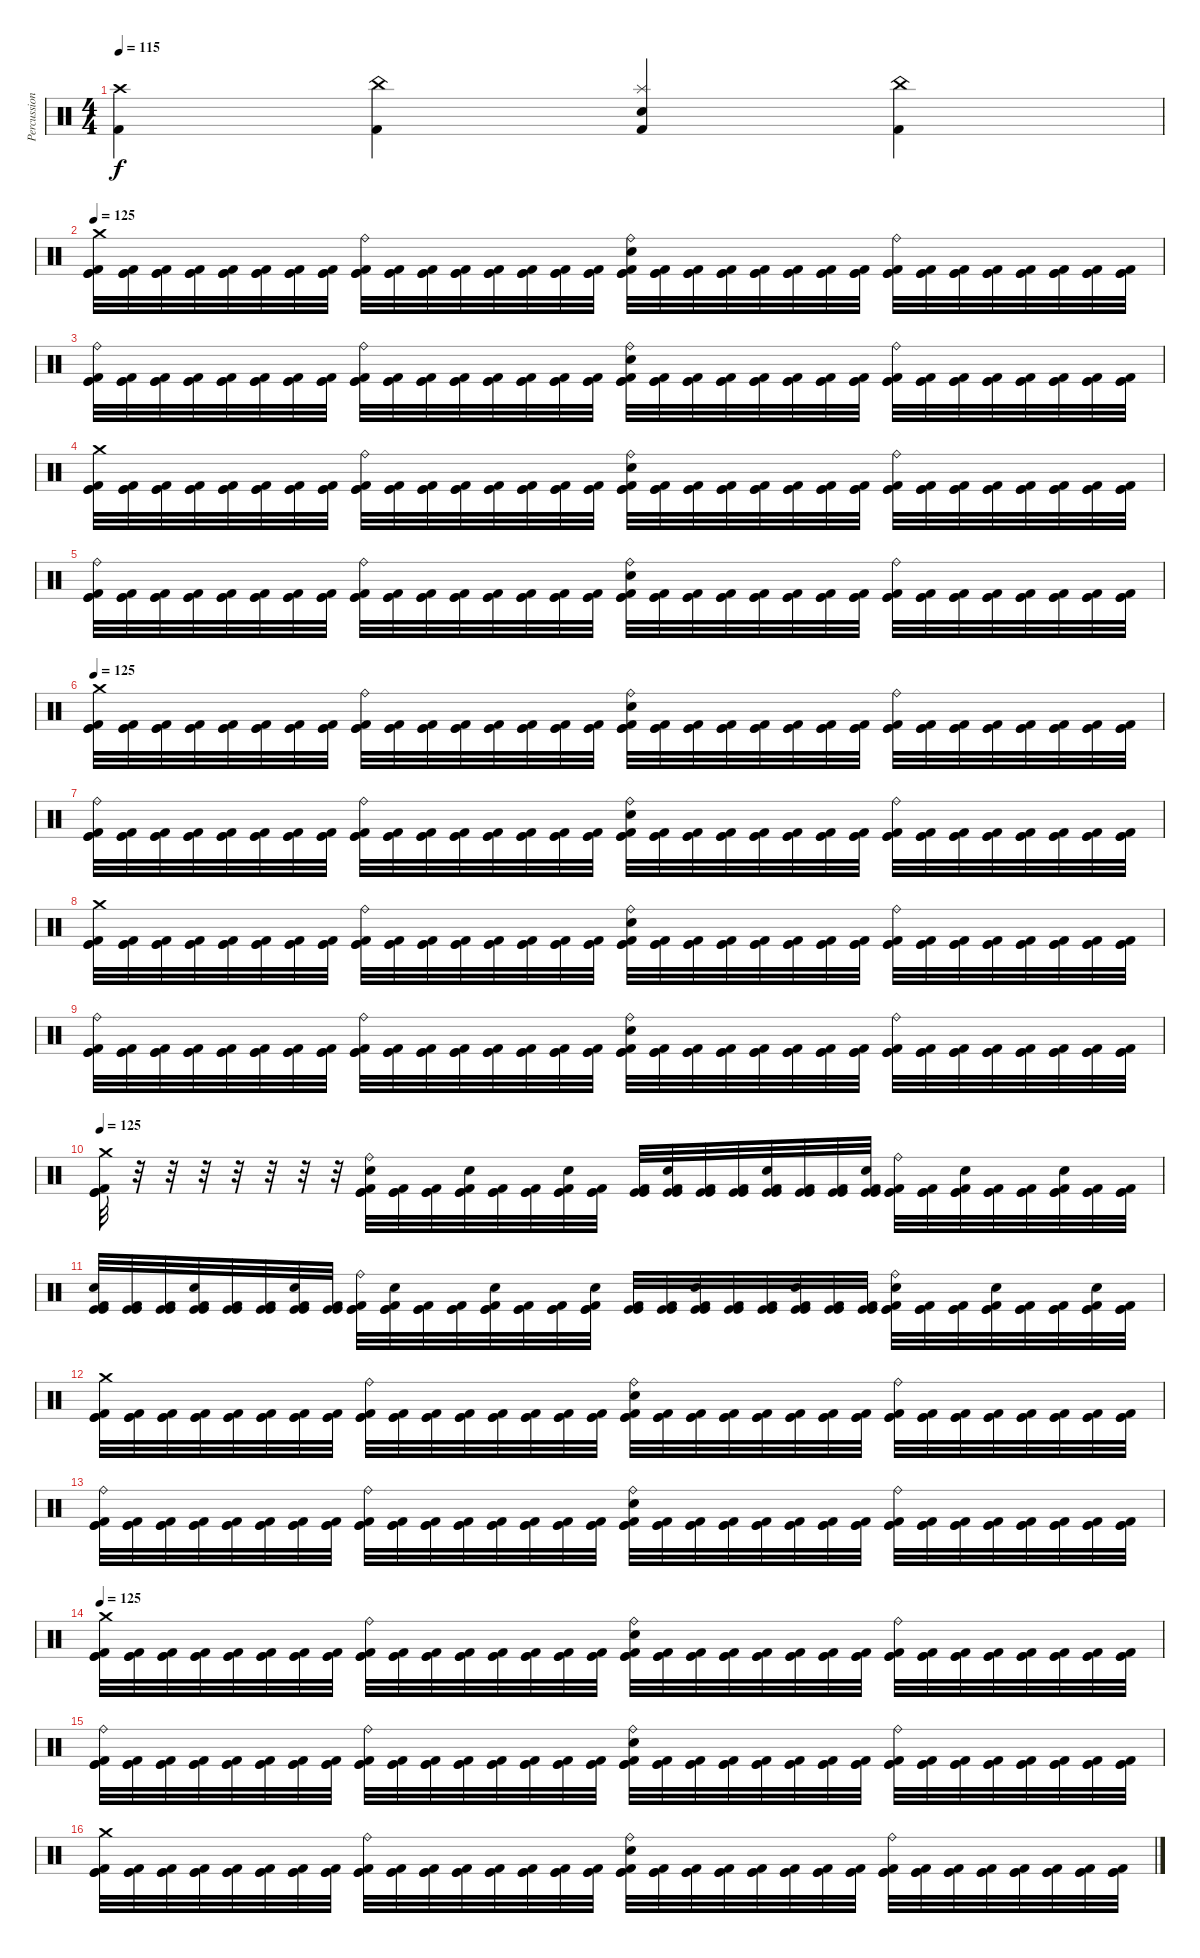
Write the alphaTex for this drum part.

\track ("Percussion" "Percussion") {instrument percussion}
\staff {score}
\articulation defaults
\ts (4 4)
\tempo 115
\clef neutral
\ks c
("Crash high (hit)" "Kick (hit) 2").4{dy f} ("China (hit)" "Kick (hit) 2").4 ("Splash (hit)" "Electric Snare (hit)" "Kick (hit) 2").4 ("China (hit)" "Kick (hit) 2").4 |
\tempo 125
("Kick (hit)" "Crash medium (hit)" "Kick (hit)" "Kick (hit) 2").32 ("Kick (hit)" "Kick (hit)" "Kick (hit) 2").32 ("Kick (hit)" "Kick (hit)" "Kick (hit) 2").32 ("Kick (hit)" "Kick (hit)" "Kick (hit) 2").32 ("Kick (hit)" "Kick (hit)" "Kick (hit) 2").32 ("Kick (hit)" "Kick (hit)" "Kick (hit) 2").32 ("Kick (hit)" "Kick (hit)" "Kick (hit) 2").32 ("Kick (hit)" "Kick (hit)" "Kick (hit) 2").32 ("Kick (hit)" "Ride (bell)" "Kick (hit)" "Kick (hit) 2").32 ("Kick (hit)" "Kick (hit)" "Kick (hit) 2").32 ("Kick (hit)" "Kick (hit)" "Kick (hit) 2").32 ("Kick (hit)" "Kick (hit)" "Kick (hit) 2").32 ("Kick (hit)" "Kick (hit)" "Kick (hit) 2").32 ("Kick (hit)" "Kick (hit)" "Kick (hit) 2").32 ("Kick (hit)" "Kick (hit)" "Kick (hit) 2").32 ("Kick (hit)" "Kick (hit)" "Kick (hit) 2").32 ("Kick (hit)" "Electric Snare (hit)" "Ride (bell)" "Kick (hit)" "Kick (hit) 2").32 ("Kick (hit)" "Kick (hit)" "Kick (hit) 2").32 ("Kick (hit)" "Kick (hit)" "Kick (hit) 2").32 ("Kick (hit)" "Kick (hit)" "Kick (hit) 2").32 ("Kick (hit)" "Kick (hit)" "Kick (hit) 2").32 ("Kick (hit)" "Kick (hit)" "Kick (hit) 2").32 ("Kick (hit)" "Kick (hit)" "Kick (hit) 2").32 ("Kick (hit)" "Kick (hit)" "Kick (hit) 2").32 ("Kick (hit)" "Ride (bell)" "Kick (hit)" "Kick (hit) 2").32 ("Kick (hit)" "Kick (hit)" "Kick (hit) 2").32 ("Kick (hit)" "Kick (hit)" "Kick (hit) 2").32 ("Kick (hit)" "Kick (hit)" "Kick (hit) 2").32 ("Kick (hit)" "Kick (hit)" "Kick (hit) 2").32 ("Kick (hit)" "Kick (hit)" "Kick (hit) 2").32 ("Kick (hit)" "Kick (hit)" "Kick (hit) 2").32 ("Kick (hit)" "Kick (hit)" "Kick (hit) 2").32 |
("Kick (hit)" "Ride (bell)" "Kick (hit)" "Kick (hit) 2").32 ("Kick (hit)" "Kick (hit)" "Kick (hit) 2").32 ("Kick (hit)" "Kick (hit)" "Kick (hit) 2").32 ("Kick (hit)" "Kick (hit)" "Kick (hit) 2").32 ("Kick (hit)" "Kick (hit)" "Kick (hit) 2").32 ("Kick (hit)" "Kick (hit)" "Kick (hit) 2").32 ("Kick (hit)" "Kick (hit)" "Kick (hit) 2").32 ("Kick (hit)" "Kick (hit)" "Kick (hit) 2").32 ("Kick (hit)" "Ride (bell)" "Kick (hit)" "Kick (hit) 2").32 ("Kick (hit)" "Kick (hit)" "Kick (hit) 2").32 ("Kick (hit)" "Kick (hit)" "Kick (hit) 2").32 ("Kick (hit)" "Kick (hit)" "Kick (hit) 2").32 ("Kick (hit)" "Kick (hit)" "Kick (hit) 2").32 ("Kick (hit)" "Kick (hit)" "Kick (hit) 2").32 ("Kick (hit)" "Kick (hit)" "Kick (hit) 2").32 ("Kick (hit)" "Kick (hit)" "Kick (hit) 2").32 ("Kick (hit)" "Electric Snare (hit)" "Ride (bell)" "Kick (hit)" "Kick (hit) 2").32 ("Kick (hit)" "Kick (hit)" "Kick (hit) 2").32 ("Kick (hit)" "Kick (hit)" "Kick (hit) 2").32 ("Kick (hit)" "Kick (hit)" "Kick (hit) 2").32 ("Kick (hit)" "Kick (hit)" "Kick (hit) 2").32 ("Kick (hit)" "Kick (hit)" "Kick (hit) 2").32 ("Kick (hit)" "Kick (hit)" "Kick (hit) 2").32 ("Kick (hit)" "Kick (hit)" "Kick (hit) 2").32 ("Kick (hit)" "Ride (bell)" "Kick (hit)" "Kick (hit) 2").32 ("Kick (hit)" "Kick (hit)" "Kick (hit) 2").32 ("Kick (hit)" "Kick (hit)" "Kick (hit) 2").32 ("Kick (hit)" "Kick (hit)" "Kick (hit) 2").32 ("Kick (hit)" "Kick (hit)" "Kick (hit) 2").32 ("Kick (hit)" "Kick (hit)" "Kick (hit) 2").32 ("Kick (hit)" "Kick (hit)" "Kick (hit) 2").32 ("Kick (hit)" "Kick (hit)" "Kick (hit) 2").32 |
("Kick (hit)" "Crash medium (hit)" "Kick (hit)" "Kick (hit) 2").32 ("Kick (hit)" "Kick (hit)" "Kick (hit) 2").32 ("Kick (hit)" "Kick (hit)" "Kick (hit) 2").32 ("Kick (hit)" "Kick (hit)" "Kick (hit) 2").32 ("Kick (hit)" "Kick (hit)" "Kick (hit) 2").32 ("Kick (hit)" "Kick (hit)" "Kick (hit) 2").32 ("Kick (hit)" "Kick (hit)" "Kick (hit) 2").32 ("Kick (hit)" "Kick (hit)" "Kick (hit) 2").32 ("Kick (hit)" "Ride (bell)" "Kick (hit)" "Kick (hit) 2").32 ("Kick (hit)" "Kick (hit)" "Kick (hit) 2").32 ("Kick (hit)" "Kick (hit)" "Kick (hit) 2").32 ("Kick (hit)" "Kick (hit)" "Kick (hit) 2").32 ("Kick (hit)" "Kick (hit)" "Kick (hit) 2").32 ("Kick (hit)" "Kick (hit)" "Kick (hit) 2").32 ("Kick (hit)" "Kick (hit)" "Kick (hit) 2").32 ("Kick (hit)" "Kick (hit)" "Kick (hit) 2").32 ("Kick (hit)" "Electric Snare (hit)" "Ride (bell)" "Kick (hit)" "Kick (hit) 2").32 ("Kick (hit)" "Kick (hit)" "Kick (hit) 2").32 ("Kick (hit)" "Kick (hit)" "Kick (hit) 2").32 ("Kick (hit)" "Kick (hit)" "Kick (hit) 2").32 ("Kick (hit)" "Kick (hit)" "Kick (hit) 2").32 ("Kick (hit)" "Kick (hit)" "Kick (hit) 2").32 ("Kick (hit)" "Kick (hit)" "Kick (hit) 2").32 ("Kick (hit)" "Kick (hit)" "Kick (hit) 2").32 ("Kick (hit)" "Ride (bell)" "Kick (hit)" "Kick (hit) 2").32 ("Kick (hit)" "Kick (hit)" "Kick (hit) 2").32 ("Kick (hit)" "Kick (hit)" "Kick (hit) 2").32 ("Kick (hit)" "Kick (hit)" "Kick (hit) 2").32 ("Kick (hit)" "Kick (hit)" "Kick (hit) 2").32 ("Kick (hit)" "Kick (hit)" "Kick (hit) 2").32 ("Kick (hit)" "Kick (hit)" "Kick (hit) 2").32 ("Kick (hit)" "Kick (hit)" "Kick (hit) 2").32 |
("Kick (hit)" "Ride (bell)" "Kick (hit)" "Kick (hit) 2").32 ("Kick (hit)" "Kick (hit)" "Kick (hit) 2").32 ("Kick (hit)" "Kick (hit)" "Kick (hit) 2").32 ("Kick (hit)" "Kick (hit)" "Kick (hit) 2").32 ("Kick (hit)" "Kick (hit)" "Kick (hit) 2").32 ("Kick (hit)" "Kick (hit)" "Kick (hit) 2").32 ("Kick (hit)" "Kick (hit)" "Kick (hit) 2").32 ("Kick (hit)" "Kick (hit)" "Kick (hit) 2").32 ("Kick (hit)" "Ride (bell)" "Kick (hit)" "Kick (hit) 2").32 ("Kick (hit)" "Kick (hit)" "Kick (hit) 2").32 ("Kick (hit)" "Kick (hit)" "Kick (hit) 2").32 ("Kick (hit)" "Kick (hit)" "Kick (hit) 2").32 ("Kick (hit)" "Kick (hit)" "Kick (hit) 2").32 ("Kick (hit)" "Kick (hit)" "Kick (hit) 2").32 ("Kick (hit)" "Kick (hit)" "Kick (hit) 2").32 ("Kick (hit)" "Kick (hit)" "Kick (hit) 2").32 ("Kick (hit)" "Electric Snare (hit)" "Ride (bell)" "Kick (hit)" "Kick (hit) 2").32 ("Kick (hit)" "Kick (hit)" "Kick (hit) 2").32 ("Kick (hit)" "Kick (hit)" "Kick (hit) 2").32 ("Kick (hit)" "Kick (hit)" "Kick (hit) 2").32 ("Kick (hit)" "Kick (hit)" "Kick (hit) 2").32 ("Kick (hit)" "Kick (hit)" "Kick (hit) 2").32 ("Kick (hit)" "Kick (hit)" "Kick (hit) 2").32 ("Kick (hit)" "Kick (hit)" "Kick (hit) 2").32 ("Kick (hit)" "Ride (bell)" "Kick (hit)" "Kick (hit) 2").32 ("Kick (hit)" "Kick (hit)" "Kick (hit) 2").32 ("Kick (hit)" "Kick (hit)" "Kick (hit) 2").32 ("Kick (hit)" "Kick (hit)" "Kick (hit) 2").32 ("Kick (hit)" "Kick (hit)" "Kick (hit) 2").32 ("Kick (hit)" "Kick (hit)" "Kick (hit) 2").32 ("Kick (hit)" "Kick (hit)" "Kick (hit) 2").32 ("Kick (hit)" "Kick (hit)" "Kick (hit) 2").32 |
\tempo 125
("Kick (hit)" "Crash medium (hit)" "Kick (hit)" "Kick (hit) 2").32 ("Kick (hit)" "Kick (hit)" "Kick (hit) 2").32 ("Kick (hit)" "Kick (hit)" "Kick (hit) 2").32 ("Kick (hit)" "Kick (hit)" "Kick (hit) 2").32 ("Kick (hit)" "Kick (hit)" "Kick (hit) 2").32 ("Kick (hit)" "Kick (hit)" "Kick (hit) 2").32 ("Kick (hit)" "Kick (hit)" "Kick (hit) 2").32 ("Kick (hit)" "Kick (hit)" "Kick (hit) 2").32 ("Kick (hit)" "Ride (bell)" "Kick (hit)" "Kick (hit) 2").32 ("Kick (hit)" "Kick (hit)" "Kick (hit) 2").32 ("Kick (hit)" "Kick (hit)" "Kick (hit) 2").32 ("Kick (hit)" "Kick (hit)" "Kick (hit) 2").32 ("Kick (hit)" "Kick (hit)" "Kick (hit) 2").32 ("Kick (hit)" "Kick (hit)" "Kick (hit) 2").32 ("Kick (hit)" "Kick (hit)" "Kick (hit) 2").32 ("Kick (hit)" "Kick (hit)" "Kick (hit) 2").32 ("Kick (hit)" "Electric Snare (hit)" "Ride (bell)" "Kick (hit)" "Kick (hit) 2").32 ("Kick (hit)" "Kick (hit)" "Kick (hit) 2").32 ("Kick (hit)" "Kick (hit)" "Kick (hit) 2").32 ("Kick (hit)" "Kick (hit)" "Kick (hit) 2").32 ("Kick (hit)" "Kick (hit)" "Kick (hit) 2").32 ("Kick (hit)" "Kick (hit)" "Kick (hit) 2").32 ("Kick (hit)" "Kick (hit)" "Kick (hit) 2").32 ("Kick (hit)" "Kick (hit)" "Kick (hit) 2").32 ("Kick (hit)" "Ride (bell)" "Kick (hit)" "Kick (hit) 2").32 ("Kick (hit)" "Kick (hit)" "Kick (hit) 2").32 ("Kick (hit)" "Kick (hit)" "Kick (hit) 2").32 ("Kick (hit)" "Kick (hit)" "Kick (hit) 2").32 ("Kick (hit)" "Kick (hit)" "Kick (hit) 2").32 ("Kick (hit)" "Kick (hit)" "Kick (hit) 2").32 ("Kick (hit)" "Kick (hit)" "Kick (hit) 2").32 ("Kick (hit)" "Kick (hit)" "Kick (hit) 2").32 |
("Kick (hit)" "Ride (bell)" "Kick (hit)" "Kick (hit) 2").32 ("Kick (hit)" "Kick (hit)" "Kick (hit) 2").32 ("Kick (hit)" "Kick (hit)" "Kick (hit) 2").32 ("Kick (hit)" "Kick (hit)" "Kick (hit) 2").32 ("Kick (hit)" "Kick (hit)" "Kick (hit) 2").32 ("Kick (hit)" "Kick (hit)" "Kick (hit) 2").32 ("Kick (hit)" "Kick (hit)" "Kick (hit) 2").32 ("Kick (hit)" "Kick (hit)" "Kick (hit) 2").32 ("Kick (hit)" "Ride (bell)" "Kick (hit)" "Kick (hit) 2").32 ("Kick (hit)" "Kick (hit)" "Kick (hit) 2").32 ("Kick (hit)" "Kick (hit)" "Kick (hit) 2").32 ("Kick (hit)" "Kick (hit)" "Kick (hit) 2").32 ("Kick (hit)" "Kick (hit)" "Kick (hit) 2").32 ("Kick (hit)" "Kick (hit)" "Kick (hit) 2").32 ("Kick (hit)" "Kick (hit)" "Kick (hit) 2").32 ("Kick (hit)" "Kick (hit)" "Kick (hit) 2").32 ("Kick (hit)" "Electric Snare (hit)" "Ride (bell)" "Kick (hit)" "Kick (hit) 2").32 ("Kick (hit)" "Kick (hit)" "Kick (hit) 2").32 ("Kick (hit)" "Kick (hit)" "Kick (hit) 2").32 ("Kick (hit)" "Kick (hit)" "Kick (hit) 2").32 ("Kick (hit)" "Kick (hit)" "Kick (hit) 2").32 ("Kick (hit)" "Kick (hit)" "Kick (hit) 2").32 ("Kick (hit)" "Kick (hit)" "Kick (hit) 2").32 ("Kick (hit)" "Kick (hit)" "Kick (hit) 2").32 ("Kick (hit)" "Ride (bell)" "Kick (hit)" "Kick (hit) 2").32 ("Kick (hit)" "Kick (hit)" "Kick (hit) 2").32 ("Kick (hit)" "Kick (hit)" "Kick (hit) 2").32 ("Kick (hit)" "Kick (hit)" "Kick (hit) 2").32 ("Kick (hit)" "Kick (hit)" "Kick (hit) 2").32 ("Kick (hit)" "Kick (hit)" "Kick (hit) 2").32 ("Kick (hit)" "Kick (hit)" "Kick (hit) 2").32 ("Kick (hit)" "Kick (hit)" "Kick (hit) 2").32 |
("Kick (hit)" "Crash medium (hit)" "Kick (hit)" "Kick (hit) 2").32 ("Kick (hit)" "Kick (hit)" "Kick (hit) 2").32 ("Kick (hit)" "Kick (hit)" "Kick (hit) 2").32 ("Kick (hit)" "Kick (hit)" "Kick (hit) 2").32 ("Kick (hit)" "Kick (hit)" "Kick (hit) 2").32 ("Kick (hit)" "Kick (hit)" "Kick (hit) 2").32 ("Kick (hit)" "Kick (hit)" "Kick (hit) 2").32 ("Kick (hit)" "Kick (hit)" "Kick (hit) 2").32 ("Kick (hit)" "Ride (bell)" "Kick (hit)" "Kick (hit) 2").32 ("Kick (hit)" "Kick (hit)" "Kick (hit) 2").32 ("Kick (hit)" "Kick (hit)" "Kick (hit) 2").32 ("Kick (hit)" "Kick (hit)" "Kick (hit) 2").32 ("Kick (hit)" "Kick (hit)" "Kick (hit) 2").32 ("Kick (hit)" "Kick (hit)" "Kick (hit) 2").32 ("Kick (hit)" "Kick (hit)" "Kick (hit) 2").32 ("Kick (hit)" "Kick (hit)" "Kick (hit) 2").32 ("Kick (hit)" "Electric Snare (hit)" "Ride (bell)" "Kick (hit)" "Kick (hit) 2").32 ("Kick (hit)" "Kick (hit)" "Kick (hit) 2").32 ("Kick (hit)" "Kick (hit)" "Kick (hit) 2").32 ("Kick (hit)" "Kick (hit)" "Kick (hit) 2").32 ("Kick (hit)" "Kick (hit)" "Kick (hit) 2").32 ("Kick (hit)" "Kick (hit)" "Kick (hit) 2").32 ("Kick (hit)" "Kick (hit)" "Kick (hit) 2").32 ("Kick (hit)" "Kick (hit)" "Kick (hit) 2").32 ("Kick (hit)" "Ride (bell)" "Kick (hit)" "Kick (hit) 2").32 ("Kick (hit)" "Kick (hit)" "Kick (hit) 2").32 ("Kick (hit)" "Kick (hit)" "Kick (hit) 2").32 ("Kick (hit)" "Kick (hit)" "Kick (hit) 2").32 ("Kick (hit)" "Kick (hit)" "Kick (hit) 2").32 ("Kick (hit)" "Kick (hit)" "Kick (hit) 2").32 ("Kick (hit)" "Kick (hit)" "Kick (hit) 2").32 ("Kick (hit)" "Kick (hit)" "Kick (hit) 2").32 |
("Kick (hit)" "Ride (bell)" "Kick (hit)" "Kick (hit) 2").32 ("Kick (hit)" "Kick (hit)" "Kick (hit) 2").32 ("Kick (hit)" "Kick (hit)" "Kick (hit) 2").32 ("Kick (hit)" "Kick (hit)" "Kick (hit) 2").32 ("Kick (hit)" "Kick (hit)" "Kick (hit) 2").32 ("Kick (hit)" "Kick (hit)" "Kick (hit) 2").32 ("Kick (hit)" "Kick (hit)" "Kick (hit) 2").32 ("Kick (hit)" "Kick (hit)" "Kick (hit) 2").32 ("Kick (hit)" "Ride (bell)" "Kick (hit)" "Kick (hit) 2").32 ("Kick (hit)" "Kick (hit)" "Kick (hit) 2").32 ("Kick (hit)" "Kick (hit)" "Kick (hit) 2").32 ("Kick (hit)" "Kick (hit)" "Kick (hit) 2").32 ("Kick (hit)" "Kick (hit)" "Kick (hit) 2").32 ("Kick (hit)" "Kick (hit)" "Kick (hit) 2").32 ("Kick (hit)" "Kick (hit)" "Kick (hit) 2").32 ("Kick (hit)" "Kick (hit)" "Kick (hit) 2").32 ("Kick (hit)" "Electric Snare (hit)" "Ride (bell)" "Kick (hit)" "Kick (hit) 2").32 ("Kick (hit)" "Kick (hit)" "Kick (hit) 2").32 ("Kick (hit)" "Kick (hit)" "Kick (hit) 2").32 ("Kick (hit)" "Kick (hit)" "Kick (hit) 2").32 ("Kick (hit)" "Kick (hit)" "Kick (hit) 2").32 ("Kick (hit)" "Kick (hit)" "Kick (hit) 2").32 ("Kick (hit)" "Kick (hit)" "Kick (hit) 2").32 ("Kick (hit)" "Kick (hit)" "Kick (hit) 2").32 ("Kick (hit)" "Ride (bell)" "Kick (hit)" "Kick (hit) 2").32 ("Kick (hit)" "Kick (hit)" "Kick (hit) 2").32 ("Kick (hit)" "Kick (hit)" "Kick (hit) 2").32 ("Kick (hit)" "Kick (hit)" "Kick (hit) 2").32 ("Kick (hit)" "Kick (hit)" "Kick (hit) 2").32 ("Kick (hit)" "Kick (hit)" "Kick (hit) 2").32 ("Kick (hit)" "Kick (hit)" "Kick (hit) 2").32 ("Kick (hit)" "Kick (hit)" "Kick (hit) 2").32 |
\tempo 125
("Kick (hit)" "Crash medium (hit)" "Kick (hit)" "Kick (hit) 2").32 r.32 r.32 r.32 r.32 r.32 r.32 r.32 ("Kick (hit)" "Ride (bell)" "Electric Snare (hit)" "Kick (hit)" "Kick (hit) 2").32 ("Kick (hit)" "Kick (hit)" "Kick (hit) 2").32 ("Kick (hit)" "Kick (hit)" "Kick (hit) 2").32 ("Kick (hit)" "Electric Snare (hit)" "Kick (hit)" "Kick (hit) 2").32 ("Kick (hit)" "Kick (hit)" "Kick (hit) 2").32 ("Kick (hit)" "Kick (hit)" "Kick (hit) 2").32 ("Kick (hit)" "Electric Snare (hit)" "Kick (hit)" "Kick (hit) 2").32 ("Kick (hit)" "Kick (hit)" "Kick (hit) 2").32 ("Kick (hit)" "Kick (hit)" "Kick (hit) 2").32 ("Kick (hit)" "Electric Snare (hit)" "Kick (hit)" "Kick (hit) 2").32 ("Kick (hit)" "Kick (hit)" "Kick (hit) 2").32 ("Kick (hit)" "Kick (hit)" "Kick (hit) 2").32 ("Kick (hit)" "Electric Snare (hit)" "Kick (hit)" "Kick (hit) 2").32 ("Kick (hit)" "Kick (hit)" "Kick (hit) 2").32 ("Kick (hit)" "Kick (hit)" "Kick (hit) 2").32 ("Kick (hit)" "Electric Snare (hit)" "Kick (hit)" "Kick (hit) 2").32 ("Kick (hit)" "Ride (bell)" "Kick (hit)" "Kick (hit) 2").32 ("Kick (hit)" "Kick (hit)" "Kick (hit) 2").32 ("Kick (hit)" "Electric Snare (hit)" "Kick (hit)" "Kick (hit) 2").32 ("Kick (hit)" "Kick (hit)" "Kick (hit) 2").32 ("Kick (hit)" "Kick (hit)" "Kick (hit) 2").32 ("Kick (hit)" "Electric Snare (hit)" "Kick (hit)" "Kick (hit) 2").32 ("Kick (hit)" "Kick (hit)" "Kick (hit) 2").32 ("Kick (hit)" "Kick (hit)" "Kick (hit) 2").32 |
("Kick (hit)" "Electric Snare (hit)" "Kick (hit)" "Kick (hit) 2").32 ("Kick (hit)" "Kick (hit)" "Kick (hit) 2").32 ("Kick (hit)" "Kick (hit)" "Kick (hit) 2").32 ("Kick (hit)" "Electric Snare (hit)" "Kick (hit)" "Kick (hit) 2").32 ("Kick (hit)" "Kick (hit)" "Kick (hit) 2").32 ("Kick (hit)" "Kick (hit)" "Kick (hit) 2").32 ("Kick (hit)" "Electric Snare (hit)" "Kick (hit)" "Kick (hit) 2").32 ("Kick (hit)" "Kick (hit)" "Kick (hit) 2").32 ("Kick (hit)" "Ride (bell)" "Kick (hit)" "Kick (hit) 2").32 ("Kick (hit)" "Electric Snare (hit)" "Kick (hit)" "Kick (hit) 2").32 ("Kick (hit)" "Kick (hit)" "Kick (hit) 2").32 ("Kick (hit)" "Kick (hit)" "Kick (hit) 2").32 ("Kick (hit)" "Electric Snare (hit)" "Kick (hit)" "Kick (hit) 2").32 ("Kick (hit)" "Kick (hit)" "Kick (hit) 2").32 ("Kick (hit)" "Kick (hit)" "Kick (hit) 2").32 ("Kick (hit)" "Electric Snare (hit)" "Kick (hit)" "Kick (hit) 2").32 ("Kick (hit)" "Kick (hit)" "Kick (hit) 2").32 ("Kick (hit)" "Kick (hit)" "Kick (hit) 2").32 ("Kick (hit)" "Electric Snare (hit)" "Kick (hit)" "Kick (hit) 2").32 ("Kick (hit)" "Kick (hit)" "Kick (hit) 2").32 ("Kick (hit)" "Kick (hit)" "Kick (hit) 2").32 ("Kick (hit)" "Electric Snare (hit)" "Kick (hit)" "Kick (hit) 2").32 ("Kick (hit)" "Kick (hit)" "Kick (hit) 2").32 ("Kick (hit)" "Kick (hit)" "Kick (hit) 2").32 ("Kick (hit)" "Ride (bell)" "Electric Snare (hit)" "Kick (hit)" "Kick (hit) 2").32 ("Kick (hit)" "Kick (hit)" "Kick (hit) 2").32 ("Kick (hit)" "Kick (hit)" "Kick (hit) 2").32 ("Kick (hit)" "Electric Snare (hit)" "Kick (hit)" "Kick (hit) 2").32 ("Kick (hit)" "Kick (hit)" "Kick (hit) 2").32 ("Kick (hit)" "Kick (hit)" "Kick (hit) 2").32 ("Kick (hit)" "Electric Snare (hit)" "Kick (hit)" "Kick (hit) 2").32 ("Kick (hit)" "Kick (hit)" "Kick (hit) 2").32 |
("Kick (hit)" "Crash medium (hit)" "Kick (hit)" "Kick (hit) 2").32 ("Kick (hit)" "Kick (hit)" "Kick (hit) 2").32 ("Kick (hit)" "Kick (hit)" "Kick (hit) 2").32 ("Kick (hit)" "Kick (hit)" "Kick (hit) 2").32 ("Kick (hit)" "Kick (hit)" "Kick (hit) 2").32 ("Kick (hit)" "Kick (hit)" "Kick (hit) 2").32 ("Kick (hit)" "Kick (hit)" "Kick (hit) 2").32 ("Kick (hit)" "Kick (hit)" "Kick (hit) 2").32 ("Kick (hit)" "Ride (bell)" "Kick (hit)" "Kick (hit) 2").32 ("Kick (hit)" "Kick (hit)" "Kick (hit) 2").32 ("Kick (hit)" "Kick (hit)" "Kick (hit) 2").32 ("Kick (hit)" "Kick (hit)" "Kick (hit) 2").32 ("Kick (hit)" "Kick (hit)" "Kick (hit) 2").32 ("Kick (hit)" "Kick (hit)" "Kick (hit) 2").32 ("Kick (hit)" "Kick (hit)" "Kick (hit) 2").32 ("Kick (hit)" "Kick (hit)" "Kick (hit) 2").32 ("Kick (hit)" "Electric Snare (hit)" "Ride (bell)" "Kick (hit)" "Kick (hit) 2").32 ("Kick (hit)" "Kick (hit)" "Kick (hit) 2").32 ("Kick (hit)" "Kick (hit)" "Kick (hit) 2").32 ("Kick (hit)" "Kick (hit)" "Kick (hit) 2").32 ("Kick (hit)" "Kick (hit)" "Kick (hit) 2").32 ("Kick (hit)" "Kick (hit)" "Kick (hit) 2").32 ("Kick (hit)" "Kick (hit)" "Kick (hit) 2").32 ("Kick (hit)" "Kick (hit)" "Kick (hit) 2").32 ("Kick (hit)" "Ride (bell)" "Kick (hit)" "Kick (hit) 2").32 ("Kick (hit)" "Kick (hit)" "Kick (hit) 2").32 ("Kick (hit)" "Kick (hit)" "Kick (hit) 2").32 ("Kick (hit)" "Kick (hit)" "Kick (hit) 2").32 ("Kick (hit)" "Kick (hit)" "Kick (hit) 2").32 ("Kick (hit)" "Kick (hit)" "Kick (hit) 2").32 ("Kick (hit)" "Kick (hit)" "Kick (hit) 2").32 ("Kick (hit)" "Kick (hit)" "Kick (hit) 2").32 |
("Kick (hit)" "Ride (bell)" "Kick (hit)" "Kick (hit) 2").32 ("Kick (hit)" "Kick (hit)" "Kick (hit) 2").32 ("Kick (hit)" "Kick (hit)" "Kick (hit) 2").32 ("Kick (hit)" "Kick (hit)" "Kick (hit) 2").32 ("Kick (hit)" "Kick (hit)" "Kick (hit) 2").32 ("Kick (hit)" "Kick (hit)" "Kick (hit) 2").32 ("Kick (hit)" "Kick (hit)" "Kick (hit) 2").32 ("Kick (hit)" "Kick (hit)" "Kick (hit) 2").32 ("Kick (hit)" "Ride (bell)" "Kick (hit)" "Kick (hit) 2").32 ("Kick (hit)" "Kick (hit)" "Kick (hit) 2").32 ("Kick (hit)" "Kick (hit)" "Kick (hit) 2").32 ("Kick (hit)" "Kick (hit)" "Kick (hit) 2").32 ("Kick (hit)" "Kick (hit)" "Kick (hit) 2").32 ("Kick (hit)" "Kick (hit)" "Kick (hit) 2").32 ("Kick (hit)" "Kick (hit)" "Kick (hit) 2").32 ("Kick (hit)" "Kick (hit)" "Kick (hit) 2").32 ("Kick (hit)" "Electric Snare (hit)" "Ride (bell)" "Kick (hit)" "Kick (hit) 2").32 ("Kick (hit)" "Kick (hit)" "Kick (hit) 2").32 ("Kick (hit)" "Kick (hit)" "Kick (hit) 2").32 ("Kick (hit)" "Kick (hit)" "Kick (hit) 2").32 ("Kick (hit)" "Kick (hit)" "Kick (hit) 2").32 ("Kick (hit)" "Kick (hit)" "Kick (hit) 2").32 ("Kick (hit)" "Kick (hit)" "Kick (hit) 2").32 ("Kick (hit)" "Kick (hit)" "Kick (hit) 2").32 ("Kick (hit)" "Ride (bell)" "Kick (hit)" "Kick (hit) 2").32 ("Kick (hit)" "Kick (hit)" "Kick (hit) 2").32 ("Kick (hit)" "Kick (hit)" "Kick (hit) 2").32 ("Kick (hit)" "Kick (hit)" "Kick (hit) 2").32 ("Kick (hit)" "Kick (hit)" "Kick (hit) 2").32 ("Kick (hit)" "Kick (hit)" "Kick (hit) 2").32 ("Kick (hit)" "Kick (hit)" "Kick (hit) 2").32 ("Kick (hit)" "Kick (hit)" "Kick (hit) 2").32 |
\tempo 125
("Kick (hit)" "Crash medium (hit)" "Kick (hit)" "Kick (hit) 2").32 ("Kick (hit)" "Kick (hit)" "Kick (hit) 2").32 ("Kick (hit)" "Kick (hit)" "Kick (hit) 2").32 ("Kick (hit)" "Kick (hit)" "Kick (hit) 2").32 ("Kick (hit)" "Kick (hit)" "Kick (hit) 2").32 ("Kick (hit)" "Kick (hit)" "Kick (hit) 2").32 ("Kick (hit)" "Kick (hit)" "Kick (hit) 2").32 ("Kick (hit)" "Kick (hit)" "Kick (hit) 2").32 ("Kick (hit)" "Ride (bell)" "Kick (hit)" "Kick (hit) 2").32 ("Kick (hit)" "Kick (hit)" "Kick (hit) 2").32 ("Kick (hit)" "Kick (hit)" "Kick (hit) 2").32 ("Kick (hit)" "Kick (hit)" "Kick (hit) 2").32 ("Kick (hit)" "Kick (hit)" "Kick (hit) 2").32 ("Kick (hit)" "Kick (hit)" "Kick (hit) 2").32 ("Kick (hit)" "Kick (hit)" "Kick (hit) 2").32 ("Kick (hit)" "Kick (hit)" "Kick (hit) 2").32 ("Kick (hit)" "Electric Snare (hit)" "Ride (bell)" "Kick (hit)" "Kick (hit) 2").32 ("Kick (hit)" "Kick (hit)" "Kick (hit) 2").32 ("Kick (hit)" "Kick (hit)" "Kick (hit) 2").32 ("Kick (hit)" "Kick (hit)" "Kick (hit) 2").32 ("Kick (hit)" "Kick (hit)" "Kick (hit) 2").32 ("Kick (hit)" "Kick (hit)" "Kick (hit) 2").32 ("Kick (hit)" "Kick (hit)" "Kick (hit) 2").32 ("Kick (hit)" "Kick (hit)" "Kick (hit) 2").32 ("Kick (hit)" "Ride (bell)" "Kick (hit)" "Kick (hit) 2").32 ("Kick (hit)" "Kick (hit)" "Kick (hit) 2").32 ("Kick (hit)" "Kick (hit)" "Kick (hit) 2").32 ("Kick (hit)" "Kick (hit)" "Kick (hit) 2").32 ("Kick (hit)" "Kick (hit)" "Kick (hit) 2").32 ("Kick (hit)" "Kick (hit)" "Kick (hit) 2").32 ("Kick (hit)" "Kick (hit)" "Kick (hit) 2").32 ("Kick (hit)" "Kick (hit)" "Kick (hit) 2").32 |
("Kick (hit)" "Ride (bell)" "Kick (hit)" "Kick (hit) 2").32 ("Kick (hit)" "Kick (hit)" "Kick (hit) 2").32 ("Kick (hit)" "Kick (hit)" "Kick (hit) 2").32 ("Kick (hit)" "Kick (hit)" "Kick (hit) 2").32 ("Kick (hit)" "Kick (hit)" "Kick (hit) 2").32 ("Kick (hit)" "Kick (hit)" "Kick (hit) 2").32 ("Kick (hit)" "Kick (hit)" "Kick (hit) 2").32 ("Kick (hit)" "Kick (hit)" "Kick (hit) 2").32 ("Kick (hit)" "Ride (bell)" "Kick (hit)" "Kick (hit) 2").32 ("Kick (hit)" "Kick (hit)" "Kick (hit) 2").32 ("Kick (hit)" "Kick (hit)" "Kick (hit) 2").32 ("Kick (hit)" "Kick (hit)" "Kick (hit) 2").32 ("Kick (hit)" "Kick (hit)" "Kick (hit) 2").32 ("Kick (hit)" "Kick (hit)" "Kick (hit) 2").32 ("Kick (hit)" "Kick (hit)" "Kick (hit) 2").32 ("Kick (hit)" "Kick (hit)" "Kick (hit) 2").32 ("Kick (hit)" "Electric Snare (hit)" "Ride (bell)" "Kick (hit)" "Kick (hit) 2").32 ("Kick (hit)" "Kick (hit)" "Kick (hit) 2").32 ("Kick (hit)" "Kick (hit)" "Kick (hit) 2").32 ("Kick (hit)" "Kick (hit)" "Kick (hit) 2").32 ("Kick (hit)" "Kick (hit)" "Kick (hit) 2").32 ("Kick (hit)" "Kick (hit)" "Kick (hit) 2").32 ("Kick (hit)" "Kick (hit)" "Kick (hit) 2").32 ("Kick (hit)" "Kick (hit)" "Kick (hit) 2").32 ("Kick (hit)" "Ride (bell)" "Kick (hit)" "Kick (hit) 2").32 ("Kick (hit)" "Kick (hit)" "Kick (hit) 2").32 ("Kick (hit)" "Kick (hit)" "Kick (hit) 2").32 ("Kick (hit)" "Kick (hit)" "Kick (hit) 2").32 ("Kick (hit)" "Kick (hit)" "Kick (hit) 2").32 ("Kick (hit)" "Kick (hit)" "Kick (hit) 2").32 ("Kick (hit)" "Kick (hit)" "Kick (hit) 2").32 ("Kick (hit)" "Kick (hit)" "Kick (hit) 2").32 |
("Kick (hit)" "Crash medium (hit)" "Kick (hit)" "Kick (hit) 2").32 ("Kick (hit)" "Kick (hit)" "Kick (hit) 2").32 ("Kick (hit)" "Kick (hit)" "Kick (hit) 2").32 ("Kick (hit)" "Kick (hit)" "Kick (hit) 2").32 ("Kick (hit)" "Kick (hit)" "Kick (hit) 2").32 ("Kick (hit)" "Kick (hit)" "Kick (hit) 2").32 ("Kick (hit)" "Kick (hit)" "Kick (hit) 2").32 ("Kick (hit)" "Kick (hit)" "Kick (hit) 2").32 ("Kick (hit)" "Ride (bell)" "Kick (hit)" "Kick (hit) 2").32 ("Kick (hit)" "Kick (hit)" "Kick (hit) 2").32 ("Kick (hit)" "Kick (hit)" "Kick (hit) 2").32 ("Kick (hit)" "Kick (hit)" "Kick (hit) 2").32 ("Kick (hit)" "Kick (hit)" "Kick (hit) 2").32 ("Kick (hit)" "Kick (hit)" "Kick (hit) 2").32 ("Kick (hit)" "Kick (hit)" "Kick (hit) 2").32 ("Kick (hit)" "Kick (hit)" "Kick (hit) 2").32 ("Kick (hit)" "Electric Snare (hit)" "Ride (bell)" "Kick (hit)" "Kick (hit) 2").32 ("Kick (hit)" "Kick (hit)" "Kick (hit) 2").32 ("Kick (hit)" "Kick (hit)" "Kick (hit) 2").32 ("Kick (hit)" "Kick (hit)" "Kick (hit) 2").32 ("Kick (hit)" "Kick (hit)" "Kick (hit) 2").32 ("Kick (hit)" "Kick (hit)" "Kick (hit) 2").32 ("Kick (hit)" "Kick (hit)" "Kick (hit) 2").32 ("Kick (hit)" "Kick (hit)" "Kick (hit) 2").32 ("Kick (hit)" "Ride (bell)" "Kick (hit)" "Kick (hit) 2").32 ("Kick (hit)" "Kick (hit)" "Kick (hit) 2").32 ("Kick (hit)" "Kick (hit)" "Kick (hit) 2").32 ("Kick (hit)" "Kick (hit)" "Kick (hit) 2").32 ("Kick (hit)" "Kick (hit)" "Kick (hit) 2").32 ("Kick (hit)" "Kick (hit)" "Kick (hit) 2").32 ("Kick (hit)" "Kick (hit)" "Kick (hit) 2").32 ("Kick (hit)" "Kick (hit)" "Kick (hit) 2").32
